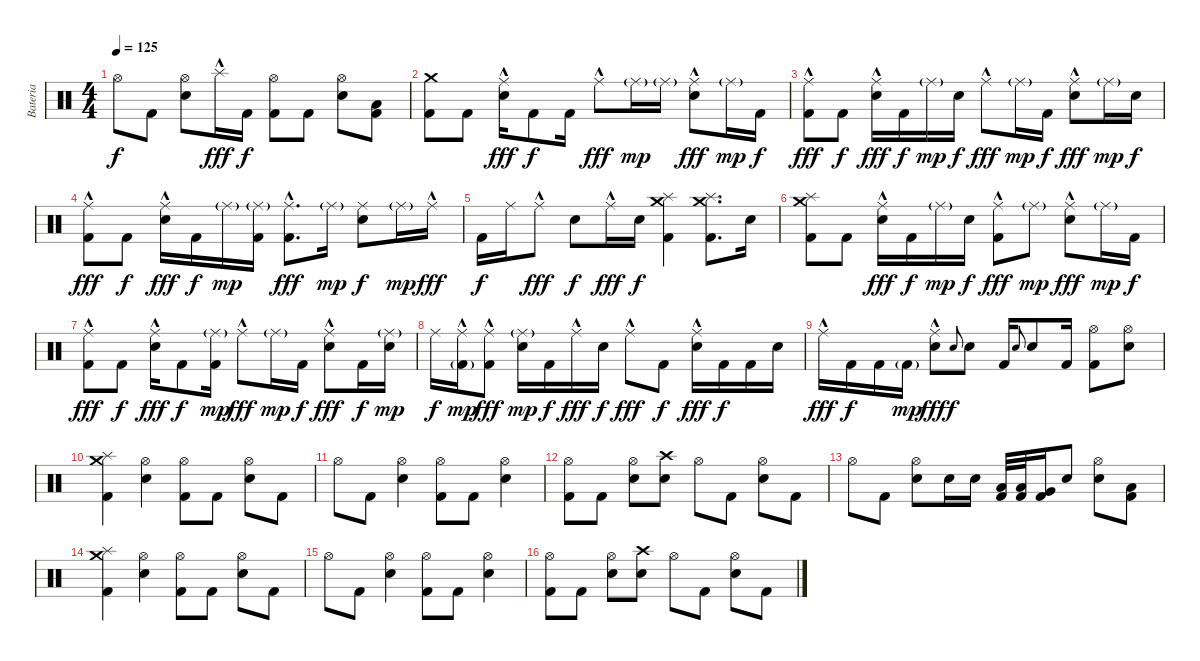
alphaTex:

\track ("Bateria" "Bateria") {instrument percussion}
\staff {score}
\articulation defaults
\ts (4 4)
\tempo 125
\clef neutral
\ks c "Hi-Hat (open)".8{dy f} "Kick (hit) 2".8
("Hi-Hat (open)" "Electric Snare (hit)").8 "Splash (hit)"{hac}.16{dy fff} "Kick (hit) 2".16{dy f} ("Hi-Hat (open)" "Kick (hit) 2").8 "Kick (hit) 2".8 ("Hi-Hat (open)" "Electric Snare (hit)").8 ("Low Floor Tom (hit)" "Kick (hit) 2").8 |
("Crash medium (hit)" "Kick (hit) 2").8 "Kick (hit) 2".8 ("Ride (middle)"{hac} "Electric Snare (hit)").16{dy fff} "Kick (hit) 2".8{dy f} "Kick (hit) 2".16 "Ride (middle)"{hac}.8{dy fff} "Ride (middle)"{g}.16{dy mp} "Ride (middle)"{g}.16 ("Ride (middle)"{hac} "Electric Snare (hit)").8{dy fff} "Ride (middle)"{g}.16{dy mp} "Kick (hit) 2".16{dy f} |
("Ride (middle)"{hac} "Kick (hit) 2").8{dy fff} "Kick (hit) 2".8{dy f} ("Ride (middle)"{hac} "Electric Snare (hit)").16{dy fff} "Kick (hit) 2".16{dy f} "Ride (middle)"{g}.16{dy mp} "Electric Snare (hit)".16{dy f} "Ride (middle)"{hac}.8{dy fff} "Ride (middle)"{g}.16{dy mp} "Kick (hit) 2".16{dy f} ("Ride (middle)"{hac} "Electric Snare (hit)").8{dy fff} "Ride (middle)"{g}.16{dy mp} "Electric Snare (hit)".16{dy f} |
("Ride (middle)"{hac} "Kick (hit) 2").8{dy fff} "Kick (hit) 2".8{dy f} ("Ride (middle)"{hac} "Electric Snare (hit)").16{dy fff} "Kick (hit) 2".16{dy f} "Ride (middle)"{g}.16{dy mp} ("Ride (middle)"{g} "Kick (hit) 2").16 ("Ride (middle)"{hac} "Kick (hit) 2").8{d dy fff} "Ride (middle)"{g}.16{dy mp} ("Ride (middle)" "Electric Snare (hit)").8{dy f} "Ride (middle)"{g}.16{dy mp} "Ride (middle)"{hac}.16{dy fff} |
"Kick (hit) 2".16{dy f} "Ride (middle)".16 "Ride (middle)"{hac}.8{dy fff} "Electric Snare (hit)".8{dy f} "Ride (middle)"{hac}.16{dy fff} "Electric Snare (hit)".16{dy f} ("Crash medium (hit)" "Splash (hit)" "Kick (hit) 2").4 ("Crash medium (hit)" "Splash (hit)" "Kick (hit) 2").8{d} "Electric Snare (hit)".16 |
("Crash medium (hit)" "Splash (hit)" "Kick (hit) 2").8 "Kick (hit) 2".8 ("Ride (middle)"{hac} "Electric Snare (hit)").16{dy fff} "Kick (hit) 2".16{dy f} "Ride (middle)"{g}.16{dy mp} "Electric Snare (hit)".16{dy f} ("Ride (middle)"{hac} "Kick (hit) 2").8{dy fff} "Ride (middle)"{g}.8{dy mp} ("Ride (middle)"{hac} "Electric Snare (hit)").8{dy fff} "Ride (middle)"{g}.16{dy mp} "Kick (hit) 2".16{dy f} |
("Ride (middle)"{hac} "Kick (hit) 2").8{dy fff} "Kick (hit) 2".8{dy f} ("Ride (middle)"{hac} "Electric Snare (hit)").16{dy fff} "Kick (hit) 2".8{dy f} ("Ride (middle)"{g} "Kick (hit) 2").16{dy mp} "Ride (middle)"{hac}.8{dy fff} "Ride (middle)"{g}.16{dy mp} "Kick (hit) 2".16{dy f} ("Ride (middle)"{hac} "Electric Snare (hit)").8{dy fff} "Kick (hit) 2".16{dy f} ("Ride (middle)"{g} "Electric Snare (hit)").16{dy mp} |
"Ride (middle)".16{dy f} ("Ride (middle)"{hac} "Kick (hit) 2"{g}).16{dy mp} ("Ride (middle)"{hac} "Kick (hit) 2").8{dy fff} ("Ride (middle)"{g} "Electric Snare (hit)").16{dy mp} "Kick (hit) 2".16{dy f} "Ride (middle)"{hac}.16{dy fff} "Electric Snare (hit)".16{dy f} "Ride (middle)"{hac}.8{dy fff} "Kick (hit) 2".8{dy f} ("Ride (middle)"{hac} "Electric Snare (hit)").16{dy fff} "Kick (hit) 2".16{dy f} "Kick (hit) 2".16 "Electric Snare (hit)".16 |
"Ride (middle)"{hac}.16{dy fff} "Kick (hit) 2".16{dy f} "Kick (hit) 2".16 "Kick (hit) 2"{g}.16{dy mp} ("Ride (middle)"{hac} "Electric Snare (hit)").8{dy fff} "Electric Snare (hit)".8{gr onbeat dy f} "Electric Snare (hit)".8 "Kick (hit) 2".16 "Electric Snare (hit)".8{gr onbeat} "Electric Snare (hit)".8 "Kick (hit) 2".16 ("Hi-Hat (open)" "Kick (hit) 2").8 ("Hi-Hat (open)" "Electric Snare (hit)").8 |
("Crash medium (hit)" "Splash (hit)" "Kick (hit) 2").4 ("Hi-Hat (open)" "Electric Snare (hit)").4 ("Hi-Hat (open)" "Kick (hit) 2").8 "Kick (hit) 2".8 ("Hi-Hat (open)" "Electric Snare (hit)").8 "Kick (hit) 2".8 |
"Hi-Hat (open)".8 "Kick (hit) 2".8 ("Hi-Hat (open)" "Electric Snare (hit)").4 ("Hi-Hat (open)" "Kick (hit) 2").8 "Kick (hit) 2".8 ("Hi-Hat (open)" "Electric Snare (hit)").4 |
("Hi-Hat (open)" "Kick (hit) 2").8 "Kick (hit) 2".8 ("Hi-Hat (open)" "Electric Snare (hit)").8 ("Crash high (hit)" "Electric Snare (hit)").8 "Hi-Hat (open)".8 "Kick (hit) 2".8 ("Hi-Hat (open)" "Electric Snare (hit)").8 "Kick (hit) 2".8 |
"Hi-Hat (open)".8 "Kick (hit) 2".8 ("Hi-Hat (open)" "Electric Snare (hit)").8 "Electric Snare (hit)".16 "Electric Snare (hit)".16 ("Low Tom (hit)" "Kick (hit) 2").32 ("Low Tom (hit)" "Kick (hit) 2").32 ("Very Low Tom (hit)" "Kick (hit) 2").16 "Electric Snare (hit)".8 ("Hi-Hat (open)" "Electric Snare (hit)").8 ("Low Floor Tom (hit)" "Kick (hit) 2").8 |
("Crash medium (hit)" "Splash (hit)" "Kick (hit) 2").4 ("Hi-Hat (open)" "Electric Snare (hit)").4 ("Hi-Hat (open)" "Kick (hit) 2").8 "Kick (hit) 2".8 ("Hi-Hat (open)" "Electric Snare (hit)").8 "Kick (hit) 2".8 |
"Hi-Hat (open)".8 "Kick (hit) 2".8 ("Hi-Hat (open)" "Electric Snare (hit)").4 ("Hi-Hat (open)" "Kick (hit) 2").8 "Kick (hit) 2".8 ("Hi-Hat (open)" "Electric Snare (hit)").4 |
("Hi-Hat (open)" "Kick (hit) 2").8 "Kick (hit) 2".8 ("Hi-Hat (open)" "Electric Snare (hit)").8 ("Crash high (hit)" "Electric Snare (hit)").8 "Hi-Hat (open)".8 "Kick (hit) 2".8 ("Hi-Hat (open)" "Electric Snare (hit)").8 "Kick (hit) 2".8
